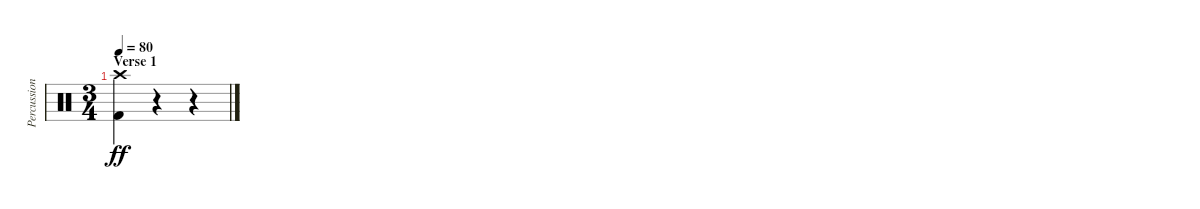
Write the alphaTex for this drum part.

\track ("Percussion" "Percussion") {instrument percussion}
\staff {score}
\articulation defaults
\ts (3 4)
\section ("" "Verse 1")
\tempo 80
\clef neutral
\ks c
("Crash high (hit)" "Kick (hit) 2").4{dy ff} r.4 r.4
